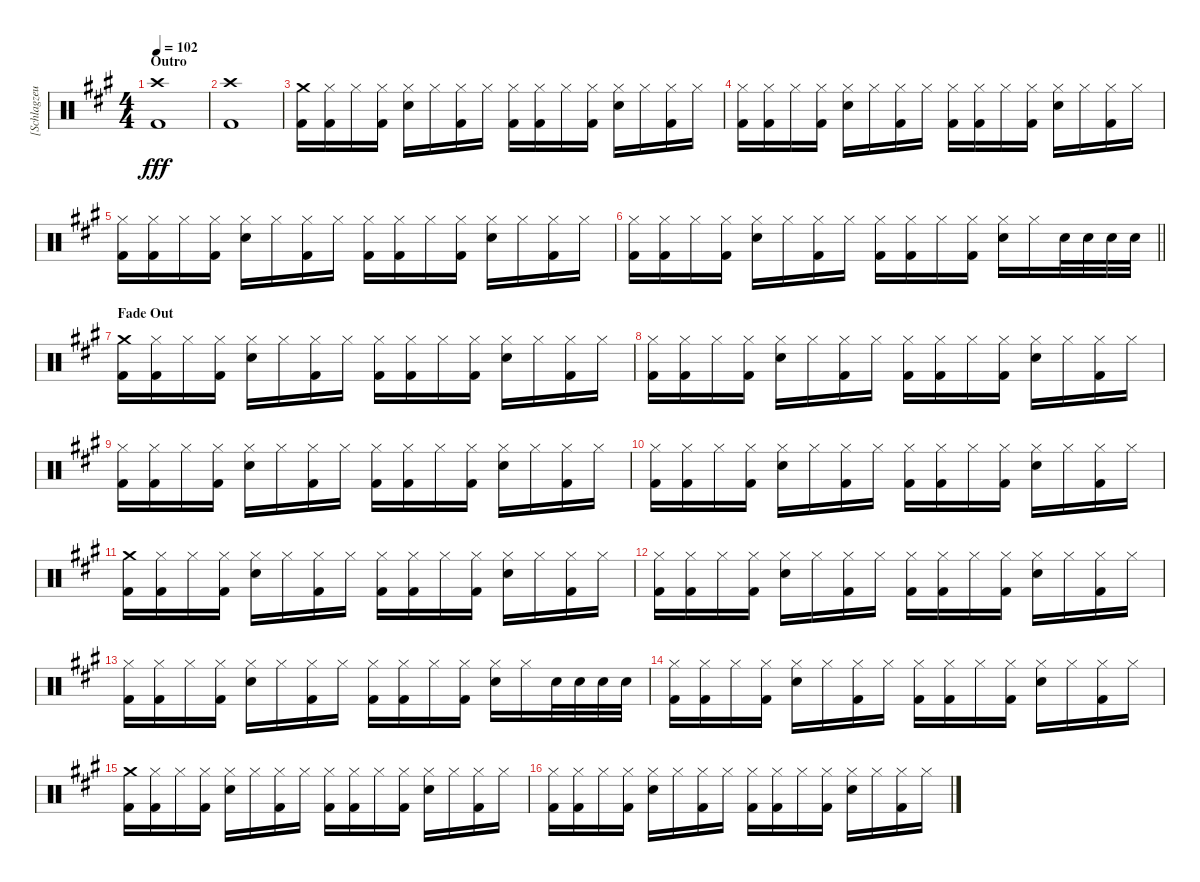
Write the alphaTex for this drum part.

\track ("[Schlagzeug]" "[Schlagzeu") {instrument percussion}
\staff {score}
\articulation defaults
\ts (4 4)
\section ("" "Outro")
\tempo 102
\clef neutral
\ks f#minor
("Kick (hit) 2" "Crash high (hit)").1{dy fff} |
("Kick (hit) 2" "Crash high (hit)").1 |
("Kick (hit) 2" "Crash medium (hit)").16 ("Kick (hit) 2" "Hi-Hat (closed)").16 "Hi-Hat (closed)".16 ("Kick (hit) 2" "Hi-Hat (closed)").16 ("Electric Snare (hit)" "Hi-Hat (closed)").16 "Hi-Hat (closed)".16 ("Kick (hit) 2" "Hi-Hat (closed)").16 "Hi-Hat (closed)".16 ("Kick (hit) 2" "Hi-Hat (closed)").16 ("Kick (hit) 2" "Hi-Hat (closed)").16 "Hi-Hat (closed)".16 ("Kick (hit) 2" "Hi-Hat (closed)").16 ("Electric Snare (hit)" "Hi-Hat (closed)").16 "Hi-Hat (closed)".16 ("Kick (hit) 2" "Hi-Hat (closed)").16 "Hi-Hat (closed)".16 |
("Kick (hit) 2" "Hi-Hat (closed)").16 ("Kick (hit) 2" "Hi-Hat (closed)").16 "Hi-Hat (closed)".16 ("Kick (hit) 2" "Hi-Hat (closed)").16 ("Electric Snare (hit)" "Hi-Hat (closed)").16 "Hi-Hat (closed)".16 ("Kick (hit) 2" "Hi-Hat (closed)").16 "Hi-Hat (closed)".16 ("Kick (hit) 2" "Hi-Hat (closed)").16 ("Kick (hit) 2" "Hi-Hat (closed)").16 "Hi-Hat (closed)".16 ("Kick (hit) 2" "Hi-Hat (closed)").16 ("Electric Snare (hit)" "Hi-Hat (closed)").16 "Hi-Hat (closed)".16 ("Kick (hit) 2" "Hi-Hat (closed)").16 "Hi-Hat (closed)".16 |
("Kick (hit) 2" "Hi-Hat (closed)").16 ("Kick (hit) 2" "Hi-Hat (closed)").16 "Hi-Hat (closed)".16 ("Kick (hit) 2" "Hi-Hat (closed)").16 ("Electric Snare (hit)" "Hi-Hat (closed)").16 "Hi-Hat (closed)".16 ("Kick (hit) 2" "Hi-Hat (closed)").16 "Hi-Hat (closed)".16 ("Kick (hit) 2" "Hi-Hat (closed)").16 ("Kick (hit) 2" "Hi-Hat (closed)").16 "Hi-Hat (closed)".16 ("Kick (hit) 2" "Hi-Hat (closed)").16 ("Electric Snare (hit)" "Hi-Hat (closed)").16 "Hi-Hat (closed)".16 ("Kick (hit) 2" "Hi-Hat (closed)").16 "Hi-Hat (closed)".16 |
\barLineRight lightlight
("Kick (hit) 2" "Hi-Hat (closed)").16 ("Kick (hit) 2" "Hi-Hat (closed)").16 "Hi-Hat (closed)".16 ("Kick (hit) 2" "Hi-Hat (closed)").16 ("Electric Snare (hit)" "Hi-Hat (closed)").16 "Hi-Hat (closed)".16 ("Kick (hit) 2" "Hi-Hat (closed)").16 "Hi-Hat (closed)".16 ("Kick (hit) 2" "Hi-Hat (closed)").16 ("Kick (hit) 2" "Hi-Hat (closed)").16 "Hi-Hat (closed)".16 ("Kick (hit) 2" "Hi-Hat (closed)").16 ("Electric Snare (hit)" "Hi-Hat (closed)").16 "Hi-Hat (closed)".16 "Electric Snare (hit)".32 "Electric Snare (hit)".32 "Electric Snare (hit)".32 "Electric Snare (hit)".32 |
\section ("" "Fade Out")
("Kick (hit) 2" "Crash medium (hit)").16{volume 10} ("Kick (hit) 2" "Hi-Hat (closed)").16 "Hi-Hat (closed)".16 ("Kick (hit) 2" "Hi-Hat (closed)").16 ("Electric Snare (hit)" "Hi-Hat (closed)").16 "Hi-Hat (closed)".16 ("Kick (hit) 2" "Hi-Hat (closed)").16 "Hi-Hat (closed)".16 ("Kick (hit) 2" "Hi-Hat (closed)").16 ("Kick (hit) 2" "Hi-Hat (closed)").16 "Hi-Hat (closed)".16 ("Kick (hit) 2" "Hi-Hat (closed)").16 ("Electric Snare (hit)" "Hi-Hat (closed)").16 "Hi-Hat (closed)".16 ("Kick (hit) 2" "Hi-Hat (closed)").16 "Hi-Hat (closed)".16 |
("Kick (hit) 2" "Hi-Hat (closed)").16 ("Kick (hit) 2" "Hi-Hat (closed)").16 "Hi-Hat (closed)".16 ("Kick (hit) 2" "Hi-Hat (closed)").16 ("Electric Snare (hit)" "Hi-Hat (closed)").16 "Hi-Hat (closed)".16 ("Kick (hit) 2" "Hi-Hat (closed)").16 "Hi-Hat (closed)".16 ("Kick (hit) 2" "Hi-Hat (closed)").16 ("Kick (hit) 2" "Hi-Hat (closed)").16 "Hi-Hat (closed)".16 ("Kick (hit) 2" "Hi-Hat (closed)").16 ("Electric Snare (hit)" "Hi-Hat (closed)").16 "Hi-Hat (closed)".16 ("Kick (hit) 2" "Hi-Hat (closed)").16 "Hi-Hat (closed)".16 |
("Kick (hit) 2" "Hi-Hat (closed)").16 ("Kick (hit) 2" "Hi-Hat (closed)").16 "Hi-Hat (closed)".16 ("Kick (hit) 2" "Hi-Hat (closed)").16 ("Electric Snare (hit)" "Hi-Hat (closed)").16 "Hi-Hat (closed)".16 ("Kick (hit) 2" "Hi-Hat (closed)").16 "Hi-Hat (closed)".16 ("Kick (hit) 2" "Hi-Hat (closed)").16 ("Kick (hit) 2" "Hi-Hat (closed)").16 "Hi-Hat (closed)".16 ("Kick (hit) 2" "Hi-Hat (closed)").16 ("Electric Snare (hit)" "Hi-Hat (closed)").16 "Hi-Hat (closed)".16 ("Kick (hit) 2" "Hi-Hat (closed)").16 "Hi-Hat (closed)".16 |
("Kick (hit) 2" "Hi-Hat (closed)").16 ("Kick (hit) 2" "Hi-Hat (closed)").16 "Hi-Hat (closed)".16 ("Kick (hit) 2" "Hi-Hat (closed)").16 ("Electric Snare (hit)" "Hi-Hat (closed)").16 "Hi-Hat (closed)".16 ("Kick (hit) 2" "Hi-Hat (closed)").16 "Hi-Hat (closed)".16 ("Kick (hit) 2" "Hi-Hat (closed)").16 ("Kick (hit) 2" "Hi-Hat (closed)").16 "Hi-Hat (closed)".16 ("Kick (hit) 2" "Hi-Hat (closed)").16 ("Electric Snare (hit)" "Hi-Hat (closed)").16 "Hi-Hat (closed)".16 ("Kick (hit) 2" "Hi-Hat (closed)").16 "Hi-Hat (closed)".16 |
("Kick (hit) 2" "Crash medium (hit)").16{volume 5} ("Kick (hit) 2" "Hi-Hat (closed)").16 "Hi-Hat (closed)".16 ("Kick (hit) 2" "Hi-Hat (closed)").16 ("Electric Snare (hit)" "Hi-Hat (closed)").16 "Hi-Hat (closed)".16 ("Kick (hit) 2" "Hi-Hat (closed)").16 "Hi-Hat (closed)".16 ("Kick (hit) 2" "Hi-Hat (closed)").16 ("Kick (hit) 2" "Hi-Hat (closed)").16 "Hi-Hat (closed)".16 ("Kick (hit) 2" "Hi-Hat (closed)").16 ("Electric Snare (hit)" "Hi-Hat (closed)").16 "Hi-Hat (closed)".16 ("Kick (hit) 2" "Hi-Hat (closed)").16 "Hi-Hat (closed)".16 |
("Kick (hit) 2" "Hi-Hat (closed)").16 ("Kick (hit) 2" "Hi-Hat (closed)").16 "Hi-Hat (closed)".16 ("Kick (hit) 2" "Hi-Hat (closed)").16 ("Electric Snare (hit)" "Hi-Hat (closed)").16 "Hi-Hat (closed)".16 ("Kick (hit) 2" "Hi-Hat (closed)").16 "Hi-Hat (closed)".16 ("Kick (hit) 2" "Hi-Hat (closed)").16 ("Kick (hit) 2" "Hi-Hat (closed)").16 "Hi-Hat (closed)".16 ("Kick (hit) 2" "Hi-Hat (closed)").16 ("Electric Snare (hit)" "Hi-Hat (closed)").16 "Hi-Hat (closed)".16 ("Kick (hit) 2" "Hi-Hat (closed)").16 "Hi-Hat (closed)".16 |
("Kick (hit) 2" "Hi-Hat (closed)").16 ("Kick (hit) 2" "Hi-Hat (closed)").16 "Hi-Hat (closed)".16 ("Kick (hit) 2" "Hi-Hat (closed)").16 ("Electric Snare (hit)" "Hi-Hat (closed)").16 "Hi-Hat (closed)".16 ("Kick (hit) 2" "Hi-Hat (closed)").16 "Hi-Hat (closed)".16 ("Kick (hit) 2" "Hi-Hat (closed)").16 ("Kick (hit) 2" "Hi-Hat (closed)").16 "Hi-Hat (closed)".16 ("Kick (hit) 2" "Hi-Hat (closed)").16 ("Electric Snare (hit)" "Hi-Hat (closed)").16 "Hi-Hat (closed)".16 "Electric Snare (hit)".32 "Electric Snare (hit)".32 "Electric Snare (hit)".32 "Electric Snare (hit)".32 |
("Kick (hit) 2" "Hi-Hat (closed)").16 ("Kick (hit) 2" "Hi-Hat (closed)").16 "Hi-Hat (closed)".16 ("Kick (hit) 2" "Hi-Hat (closed)").16 ("Electric Snare (hit)" "Hi-Hat (closed)").16 "Hi-Hat (closed)".16 ("Kick (hit) 2" "Hi-Hat (closed)").16 "Hi-Hat (closed)".16 ("Kick (hit) 2" "Hi-Hat (closed)").16 ("Kick (hit) 2" "Hi-Hat (closed)").16 "Hi-Hat (closed)".16 ("Kick (hit) 2" "Hi-Hat (closed)").16 ("Electric Snare (hit)" "Hi-Hat (closed)").16 "Hi-Hat (closed)".16 ("Kick (hit) 2" "Hi-Hat (closed)").16 "Hi-Hat (closed)".16 |
("Kick (hit) 2" "Crash medium (hit)").16{volume 0} ("Kick (hit) 2" "Hi-Hat (closed)").16 "Hi-Hat (closed)".16 ("Kick (hit) 2" "Hi-Hat (closed)").16 ("Electric Snare (hit)" "Hi-Hat (closed)").16 "Hi-Hat (closed)".16 ("Kick (hit) 2" "Hi-Hat (closed)").16 "Hi-Hat (closed)".16 ("Kick (hit) 2" "Hi-Hat (closed)").16 ("Kick (hit) 2" "Hi-Hat (closed)").16 "Hi-Hat (closed)".16 ("Kick (hit) 2" "Hi-Hat (closed)").16 ("Electric Snare (hit)" "Hi-Hat (closed)").16 "Hi-Hat (closed)".16 ("Kick (hit) 2" "Hi-Hat (closed)").16 "Hi-Hat (closed)".16 |
("Kick (hit) 2" "Hi-Hat (closed)").16 ("Kick (hit) 2" "Hi-Hat (closed)").16 "Hi-Hat (closed)".16 ("Kick (hit) 2" "Hi-Hat (closed)").16 ("Electric Snare (hit)" "Hi-Hat (closed)").16 "Hi-Hat (closed)".16 ("Kick (hit) 2" "Hi-Hat (closed)").16 "Hi-Hat (closed)".16 ("Kick (hit) 2" "Hi-Hat (closed)").16 ("Kick (hit) 2" "Hi-Hat (closed)").16 "Hi-Hat (closed)".16 ("Kick (hit) 2" "Hi-Hat (closed)").16 ("Electric Snare (hit)" "Hi-Hat (closed)").16 "Hi-Hat (closed)".16 ("Kick (hit) 2" "Hi-Hat (closed)").16 "Hi-Hat (closed)".16
